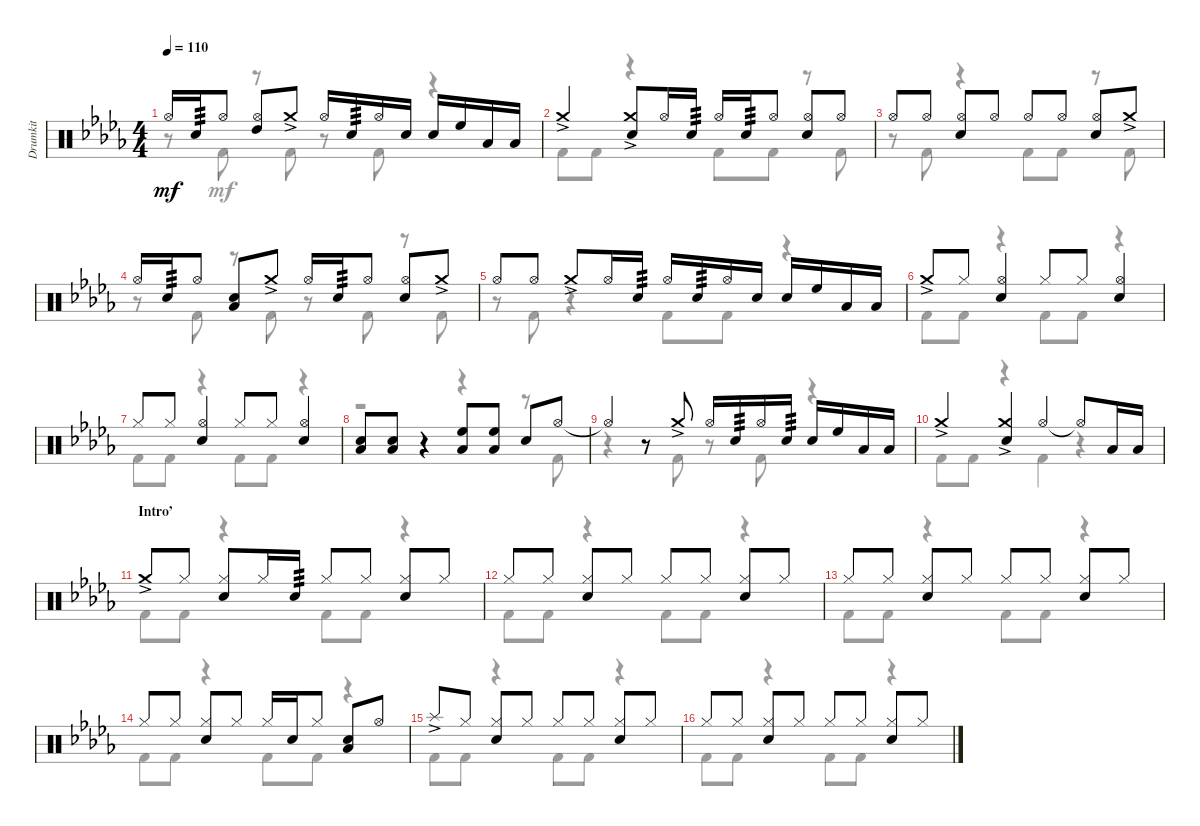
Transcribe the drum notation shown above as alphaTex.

\track ("Drumkit" "Drumkit") {instrument percussion}
\staff {score}
\articulation defaults
\voice
\ts (4 4)
\tempo 110
\clef neutral
\ks db "Hi-Hat (open)".16{dy mf} "Snare (hit) 2".16{tp 3} "Hi-Hat (open)".8
("Hi-Hat (open)" "High Tom (hit)").8 "Crash medium (hit)"{ac}.8 "Hi-Hat (open)".16 "Snare (hit) 2".16{tp 3} "Hi-Hat (open)".16 "Snare (hit) 2".16 "Snare (hit) 2".16 "High Floor Tom (hit)".16 "Low Floor Tom (hit)".16 "Low Floor Tom (hit)".16 |
"Crash medium (hit)"{ac}.4 ("Crash medium (hit)"{ac} "Snare (hit) 2").8 "Hi-Hat (open)".16 "Snare (hit) 2".16{tp 3} "Hi-Hat (open)".16 "Snare (hit) 2".16{tp 3} "Hi-Hat (open)".8 ("Hi-Hat (open)" "Snare (hit) 2").8 "Hi-Hat (open)".8 |
"Hi-Hat (open)".8 "Hi-Hat (open)".8 ("Hi-Hat (open)" "Snare (hit) 2").8 "Hi-Hat (open)".8 "Hi-Hat (open)".8 "Hi-Hat (open)".8 ("Hi-Hat (open)" "Snare (hit) 2").8 "Crash medium (hit)"{ac}.8 |
"Hi-Hat (open)".16 "Snare (hit) 2".16{tp 3} "Hi-Hat (open)".8 ("Snare (hit) 2" "Low Floor Tom (hit)").8 "Crash medium (hit)"{ac}.8 "Hi-Hat (open)".16 "Snare (hit) 2".16{tp 3} "Hi-Hat (open)".8 ("Hi-Hat (open)" "Snare (hit) 2").8 "Crash medium (hit)"{ac}.8 |
"Hi-Hat (open)".8 "Hi-Hat (open)".8 "Crash medium (hit)"{ac}.8 "Hi-Hat (open)".16 "Snare (hit) 2".16{tp 3} "Hi-Hat (open)".16 "Snare (hit) 2".16{tp 3} "Hi-Hat (open)".16 "Snare (hit) 2".16 "Snare (hit) 2".16 "High Floor Tom (hit)".16 "Low Floor Tom (hit)".16 "Low Floor Tom (hit)".16 |
"Crash medium (hit)"{ac}.8 "Hi-Hat (closed)".8 ("Hi-Hat (open)" "Snare (hit) 2").4 "Hi-Hat (closed)".8 "Hi-Hat (closed)".8 ("Hi-Hat (open)" "Snare (hit) 2").4 |
"Hi-Hat (closed)".8 "Hi-Hat (closed)".8 ("Hi-Hat (open)" "Snare (hit) 2").4 "Hi-Hat (closed)".8 "Hi-Hat (closed)".8 ("Hi-Hat (open)" "Snare (hit) 2").4 |
("Snare (hit) 2" "Low Floor Tom (hit)").8 ("Snare (hit) 2" "Low Floor Tom (hit)").8 r.4 ("High Floor Tom (hit)" "Low Floor Tom (hit)").8 ("High Floor Tom (hit)" "Low Floor Tom (hit)").8 "Snare (hit) 2".8 "Hi-Hat (open)".8 |
"Hi-Hat (open)"{t}.4 r.8 "Crash medium (hit)"{ac}.8 "Hi-Hat (open)".16 "Snare (hit) 2".16{tp 3} "Hi-Hat (open)".16 "Snare (hit) 2".16{tp 3} "Snare (hit) 2".16 "High Floor Tom (hit)".16 "Low Floor Tom (hit)".16 "Low Floor Tom (hit)".16 |
"Crash medium (hit)"{ac}.4 ("Crash medium (hit)"{ac} "Snare (hit) 2").4 "Hi-Hat (open)".4 "Hi-Hat (open)"{t}.8 "Low Floor Tom (hit)".16 "Low Floor Tom (hit)".16 |
\section ("" "Intro’")
"Crash medium (hit)"{ac}.8 "Hi-Hat (closed)".8 ("Snare (hit) 2" "Hi-Hat (closed)").8 "Hi-Hat (closed)".16 "Snare (hit) 2".16{tp 3} "Hi-Hat (closed)".8 "Hi-Hat (closed)".8 ("Snare (hit) 2" "Hi-Hat (closed)").8 "Hi-Hat (closed)".8 |
"Hi-Hat (closed)".8 "Hi-Hat (closed)".8 ("Snare (hit) 2" "Hi-Hat (closed)").8 "Hi-Hat (closed)".8 "Hi-Hat (closed)".8 "Hi-Hat (closed)".8 ("Snare (hit) 2" "Hi-Hat (closed)").8 "Hi-Hat (closed)".8 |
"Hi-Hat (closed)".8 "Hi-Hat (closed)".8 ("Snare (hit) 2" "Hi-Hat (closed)").8 "Hi-Hat (closed)".8 "Hi-Hat (closed)".8 "Hi-Hat (closed)".8 ("Snare (hit) 2" "Hi-Hat (closed)").8 "Hi-Hat (closed)".8 |
"Hi-Hat (closed)".8 "Hi-Hat (closed)".8 ("Snare (hit) 2" "Hi-Hat (closed)").8 "Hi-Hat (closed)".8 "Hi-Hat (closed)".16 "Snare (hit) 2".16 "Hi-Hat (closed)".8 ("Snare (hit) 2" "Low Floor Tom (hit)").8 "Hi-Hat (open)".8 |
"Splash (hit)"{ac}.8 "Hi-Hat (closed)".8 ("Hi-Hat (closed)" "Snare (hit) 2").8 "Hi-Hat (closed)".8 "Hi-Hat (closed)".8 "Hi-Hat (closed)".8 ("Hi-Hat (closed)" "Snare (hit) 2").8 "Hi-Hat (closed)".8 |
"Hi-Hat (closed)".8 "Hi-Hat (closed)".8 ("Snare (hit) 2" "Hi-Hat (closed)").8 "Hi-Hat (closed)".8 "Hi-Hat (closed)".8 "Hi-Hat (closed)".8 ("Snare (hit) 2" "Hi-Hat (closed)").8 "Hi-Hat (closed)".8
\voice
\clef neutral
\ottava regular
\simile none
\ks db
r.8{dy mf} "Kick (hit) 2".8 r.8 "Kick (hit) 2".8 r.8 "Kick (hit) 2".8 r.4 |
"Kick (hit) 2".8 "Kick (hit) 2".8 r.4 "Kick (hit) 2".8 "Kick (hit) 2".8 r.8 "Kick (hit) 2".8 |
r.8 "Kick (hit) 2".8 r.4 "Kick (hit) 2".8 "Kick (hit) 2".8 r.8 "Kick (hit) 2".8 |
r.8 "Kick (hit) 2".8 r.8 "Kick (hit) 2".8 r.8 "Kick (hit) 2".8 r.8 "Kick (hit) 2".8 |
r.8 "Kick (hit) 2".8 r.4 "Kick (hit) 2".8 "Kick (hit) 2".8 r.4 |
"Kick (hit) 2".8 "Kick (hit) 2".8 r.4 "Kick (hit) 2".8 "Kick (hit) 2".8 r.4 |
"Kick (hit) 2".8 "Kick (hit) 2".8 r.4 "Kick (hit) 2".8 "Kick (hit) 2".8 r.4 |
r.2 r.4 r.8 "Kick (hit) 2".8 |
r.4 r.8 "Kick (hit) 2".8 r.8 "Kick (hit) 2".8 r.4 |
"Kick (hit) 2".8 "Kick (hit) 2".8 r.4 "Kick (hit) 2".4 r.4 |
"Kick (hit) 2".8 "Kick (hit) 2".8 r.4 "Kick (hit) 2".8 "Kick (hit) 2".8 r.4 |
"Kick (hit) 2".8 "Kick (hit) 2".8 r.4 "Kick (hit) 2".8 "Kick (hit) 2".8 r.4 |
"Kick (hit) 2".8 "Kick (hit) 2".8 r.4 "Kick (hit) 2".8 "Kick (hit) 2".8 r.4 |
"Kick (hit) 2".8 "Kick (hit) 2".8 r.4 "Kick (hit) 2".8 "Kick (hit) 2".8 r.4 |
"Kick (hit) 2".8 "Kick (hit) 2".8 r.4 "Kick (hit) 2".8 "Kick (hit) 2".8 r.4 |
"Kick (hit) 2".8 "Kick (hit) 2".8 r.4 "Kick (hit) 2".8 "Kick (hit) 2".8 r.4
